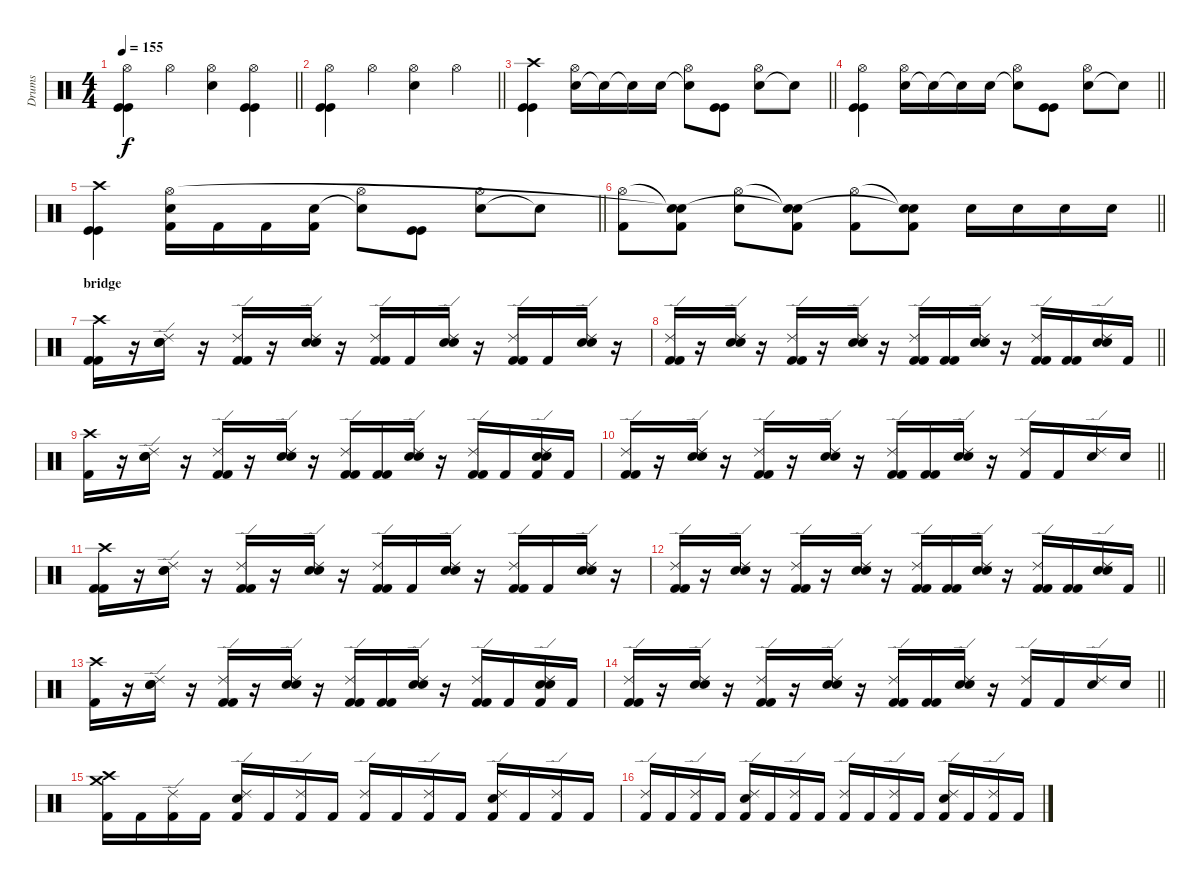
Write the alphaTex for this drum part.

\track ("Drums" "Drums") {instrument percussion}
\staff {score}
\articulation defaults
\ts (4 4)
\tempo 155
\clef neutral
\barLineRight lightlight
\ks c
("Hi-Hat (open)" "Kick (hit)" "Kick (hit)").4{dy f} "Hi-Hat (open)".4 ("Hi-Hat (open)" "Snare (hit) 2").4 ("Hi-Hat (open)" "Kick (hit)" "Kick (hit)").4 |
\barLineRight lightlight
("Hi-Hat (open)" "Kick (hit)" "Kick (hit)").4 "Hi-Hat (open)".4 ("Hi-Hat (open)" "Snare (hit) 2").4 "Hi-Hat (open)".4 |
\barLineRight lightlight
("Kick (hit)" "Kick (hit)" "Crash high (hit)").4 ("Snare (hit) 2" "Hi-Hat (open)").16 "Snare (hit)"{t}.16 "Snare (hit)"{t}.16 "Snare (hit) 2".16 ("Snare (hit)"{t} "Hi-Hat (open)").8 ("Kick (hit)" "Kick (hit)").8 ("Snare (hit) 2" "Hi-Hat (open)").8 "Snare (hit)"{t}.8 |
\barLineRight lightlight
("Kick (hit)" "Kick (hit)" "Hi-Hat (open)").4 ("Snare (hit) 2" "Hi-Hat (open)").16 "Snare (hit)"{t}.16 "Snare (hit)"{t}.16 "Snare (hit) 2".16 ("Snare (hit)"{t} "Hi-Hat (open)").8 ("Kick (hit)" "Kick (hit)").8 ("Snare (hit) 2" "Hi-Hat (open)").8 "Snare (hit)"{t}.8 |
\barLineRight lightlight
("Kick (hit)" "Kick (hit)" "Crash high (hit)").4 ("Snare (hit) 2" "Kick (hit) 2" "Hi-Hat (open)").16 "Kick (hit) 2".16 "Kick (hit) 2".16 ("Snare (hit) 2" "Kick (hit) 2").16 ("Snare (hit)"{t} "Hi-Hat (open)").8 ("Kick (hit)" "Kick (hit)").8 ("Snare (hit) 2" "Hi-Hat (open)").8 "Snare (hit)"{t}.8 |
\barLineRight lightlight
("Hi-Hat (open)" "Kick (hit) 2").8 ("Snare (hit)"{t} "Kick (hit) 2" "Snare (hit)"{t}).8 ("Hi-Hat (open)" "Snare (hit) 2").8 ("Snare (hit)"{t} "Kick (hit) 2" "Snare (hit)"{t}).8 ("Hi-Hat (open)" "Kick (hit) 2").8 ("Snare (hit)"{t} "Kick (hit) 2" "Snare (hit)"{t}).8 "Electric Snare (hit)".16 "Electric Snare (hit)".16 "Electric Snare (hit)".16 "Electric Snare (hit)".16 |
\section ("" "bridge")
("Crash high (hit)" "Kick (hit) 2" "Kick (hit) 2").16 r.16 ("Ride (edge) 2" "Electric Snare (hit)" "Electric Snare (hit)").16 r.16 ("Ride (edge) 2" "Kick (hit) 2" "Kick (hit) 2").16 r.16 ("Ride (edge) 2" "Electric Snare (hit)" "Electric Snare (hit)").16 r.16 ("Ride (edge) 2" "Kick (hit) 2" "Kick (hit) 2").16 "Kick (hit) 2".16 ("Ride (edge) 2" "Electric Snare (hit)" "Electric Snare (hit)").16 r.16 ("Ride (edge) 2" "Kick (hit) 2" "Kick (hit) 2").16 "Kick (hit) 2".16 ("Ride (edge) 2" "Electric Snare (hit)" "Electric Snare (hit)").16 r.16 |
\barLineRight lightlight
("Ride (edge) 2" "Kick (hit) 2" "Kick (hit) 2").16 r.16 ("Ride (edge) 2" "Electric Snare (hit)" "Electric Snare (hit)").16 r.16 ("Ride (edge) 2" "Kick (hit) 2" "Kick (hit) 2").16 r.16 ("Ride (edge) 2" "Electric Snare (hit)" "Electric Snare (hit)").16 r.16 ("Ride (edge) 2" "Kick (hit) 2" "Kick (hit) 2").16 ("Kick (hit) 2" "Kick (hit) 2").16 ("Ride (edge) 2" "Electric Snare (hit)" "Electric Snare (hit)").16 r.16 ("Ride (edge) 2" "Kick (hit) 2" "Kick (hit) 2").16 ("Kick (hit) 2" "Kick (hit) 2").16 ("Ride (edge) 2" "Electric Snare (hit)" "Electric Snare (hit)").16 "Kick (hit) 2".16 |
("Crash high (hit)" "Kick (hit) 2").16 r.16 ("Ride (edge) 2" "Electric Snare (hit)" "Electric Snare (hit)").16 r.16 ("Ride (edge) 2" "Kick (hit) 2" "Kick (hit) 2").16 r.16 ("Ride (edge) 2" "Electric Snare (hit)" "Electric Snare (hit)").16 r.16 ("Ride (edge) 2" "Kick (hit) 2" "Kick (hit) 2").16 ("Kick (hit) 2" "Kick (hit) 2").16 ("Ride (edge) 2" "Electric Snare (hit)" "Electric Snare (hit)").16 r.16 ("Ride (edge) 2" "Kick (hit) 2" "Kick (hit) 2").16 "Kick (hit) 2".16 ("Ride (edge) 2" "Kick (hit) 2" "Electric Snare (hit)" "Electric Snare (hit)").16 "Kick (hit) 2".16 |
\barLineRight lightlight
("Ride (edge) 2" "Kick (hit) 2" "Kick (hit) 2").16 r.16 ("Ride (edge) 2" "Electric Snare (hit)" "Electric Snare (hit)").16 r.16 ("Ride (edge) 2" "Kick (hit) 2" "Kick (hit) 2").16 r.16 ("Ride (edge) 2" "Electric Snare (hit)" "Electric Snare (hit)").16 r.16 ("Ride (edge) 2" "Kick (hit) 2" "Kick (hit) 2").16 ("Kick (hit) 2" "Kick (hit) 2").16 ("Ride (edge) 2" "Electric Snare (hit)" "Electric Snare (hit)").16 r.16 ("Ride (edge) 2" "Kick (hit) 2").16 "Kick (hit) 2".16 ("Ride (edge) 2" "Electric Snare (hit)").16 "Electric Snare (hit)".16 |
("Crash high (hit)" "Kick (hit) 2" "Kick (hit) 2").16 r.16 ("Ride (edge) 2" "Electric Snare (hit)" "Electric Snare (hit)").16 r.16 ("Ride (edge) 2" "Kick (hit) 2" "Kick (hit) 2").16 r.16 ("Ride (edge) 2" "Electric Snare (hit)" "Electric Snare (hit)").16 r.16 ("Ride (edge) 2" "Kick (hit) 2" "Kick (hit) 2").16 "Kick (hit) 2".16 ("Ride (edge) 2" "Electric Snare (hit)" "Electric Snare (hit)").16 r.16 ("Ride (edge) 2" "Kick (hit) 2" "Kick (hit) 2").16 "Kick (hit) 2".16 ("Ride (edge) 2" "Electric Snare (hit)" "Electric Snare (hit)").16 r.16 |
\barLineRight lightlight
("Ride (edge) 2" "Kick (hit) 2" "Kick (hit) 2").16 r.16 ("Ride (edge) 2" "Electric Snare (hit)" "Electric Snare (hit)").16 r.16 ("Ride (edge) 2" "Kick (hit) 2" "Kick (hit) 2").16 r.16 ("Ride (edge) 2" "Electric Snare (hit)" "Electric Snare (hit)").16 r.16 ("Ride (edge) 2" "Kick (hit) 2" "Kick (hit) 2").16 ("Kick (hit) 2" "Kick (hit) 2").16 ("Ride (edge) 2" "Electric Snare (hit)" "Electric Snare (hit)").16 r.16 ("Ride (edge) 2" "Kick (hit) 2" "Kick (hit) 2").16 ("Kick (hit) 2" "Kick (hit) 2").16 ("Ride (edge) 2" "Electric Snare (hit)" "Electric Snare (hit)").16 "Kick (hit) 2".16 |
("Crash high (hit)" "Kick (hit) 2").16 r.16 ("Ride (edge) 2" "Electric Snare (hit)" "Electric Snare (hit)").16 r.16 ("Ride (edge) 2" "Kick (hit) 2" "Kick (hit) 2").16 r.16 ("Ride (edge) 2" "Electric Snare (hit)" "Electric Snare (hit)").16 r.16 ("Ride (edge) 2" "Kick (hit) 2" "Kick (hit) 2").16 ("Kick (hit) 2" "Kick (hit) 2").16 ("Ride (edge) 2" "Electric Snare (hit)" "Electric Snare (hit)").16 r.16 ("Ride (edge) 2" "Kick (hit) 2" "Kick (hit) 2").16 "Kick (hit) 2".16 ("Ride (edge) 2" "Kick (hit) 2" "Electric Snare (hit)" "Electric Snare (hit)").16 "Kick (hit) 2".16 |
\barLineRight lightlight
("Ride (edge) 2" "Kick (hit) 2" "Kick (hit) 2").16 r.16 ("Ride (edge) 2" "Electric Snare (hit)" "Electric Snare (hit)").16 r.16 ("Ride (edge) 2" "Kick (hit) 2" "Kick (hit) 2").16 r.16 ("Ride (edge) 2" "Electric Snare (hit)" "Electric Snare (hit)").16 r.16 ("Ride (edge) 2" "Kick (hit) 2" "Kick (hit) 2").16 ("Kick (hit) 2" "Kick (hit) 2").16 ("Ride (edge) 2" "Electric Snare (hit)" "Electric Snare (hit)").16 r.16 ("Ride (edge) 2" "Kick (hit) 2").16 "Kick (hit) 2".16 ("Ride (edge) 2" "Electric Snare (hit)").16 "Electric Snare (hit)".16 |
("Crash high (hit)" "Crash medium (hit)" "Kick (hit) 2").16 "Kick (hit) 2".16 ("Ride (edge) 2" "Kick (hit) 2").16 "Kick (hit) 2".16 ("Ride (edge) 2" "Electric Snare (hit)" "Kick (hit) 2").16 "Kick (hit) 2".16 ("Ride (edge) 2" "Kick (hit) 2").16 "Kick (hit) 2".16 ("Ride (edge) 2" "Kick (hit) 2").16 "Kick (hit) 2".16 ("Ride (edge) 2" "Kick (hit) 2").16 "Kick (hit) 2".16 ("Ride (edge) 2" "Electric Snare (hit)" "Kick (hit) 2").16 "Kick (hit) 2".16 ("Ride (edge) 2" "Kick (hit) 2").16 "Kick (hit) 2".16 |
("Ride (edge) 2" "Kick (hit) 2").16 "Kick (hit) 2".16 ("Ride (edge) 2" "Kick (hit) 2").16 "Kick (hit) 2".16 ("Ride (edge) 2" "Electric Snare (hit)" "Kick (hit) 2").16 "Kick (hit) 2".16 ("Ride (edge) 2" "Kick (hit) 2").16 "Kick (hit) 2".16 ("Ride (edge) 2" "Kick (hit) 2").16 "Kick (hit) 2".16 ("Ride (edge) 2" "Kick (hit) 2").16 "Kick (hit) 2".16 ("Ride (edge) 2" "Electric Snare (hit)" "Kick (hit) 2").16 "Kick (hit) 2".16 ("Ride (edge) 2" "Kick (hit) 2").16 "Kick (hit) 2".16
